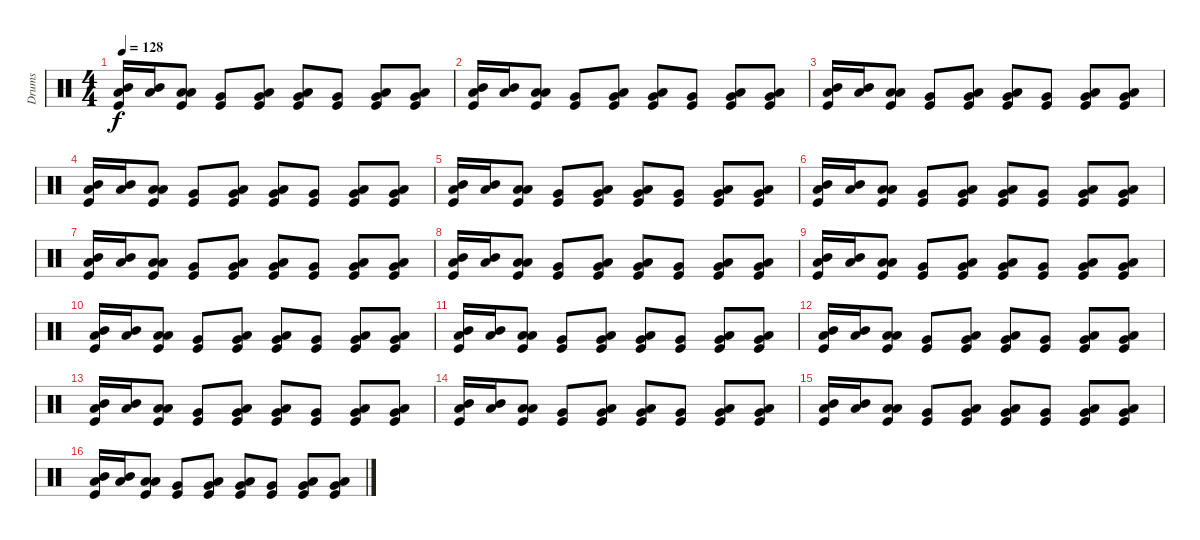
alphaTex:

\track ("Drums" "Drums") {instrument percussion}
\staff {score}
\articulation defaults
\ts (4 4)
\tempo 128
\clef neutral
\ks c
("Mid Tom (hit)" "Low Tom (hit)" "Kick (hit)").16{dy f} ("Mid Tom (hit)" "Low Tom (hit)").16 ("Low Tom (hit)" "Low Tom (hit)" "Kick (hit)").8 ("Very Low Tom (hit)" "Kick (hit)").8 ("Low Tom (hit)" "Very Low Tom (hit)" "Kick (hit)").8 ("Low Tom (hit)" "Very Low Tom (hit)" "Kick (hit)").8 ("Very Low Tom (hit)" "Kick (hit)").8 ("Low Tom (hit)" "Very Low Tom (hit)" "Kick (hit)").8 ("Low Tom (hit)" "Very Low Tom (hit)" "Kick (hit)").8 |
("Mid Tom (hit)" "Low Tom (hit)" "Kick (hit)").16 ("Mid Tom (hit)" "Low Tom (hit)").16 ("Low Tom (hit)" "Low Tom (hit)" "Kick (hit)").8 ("Very Low Tom (hit)" "Kick (hit)").8 ("Low Tom (hit)" "Very Low Tom (hit)" "Kick (hit)").8 ("Low Tom (hit)" "Very Low Tom (hit)" "Kick (hit)").8 ("Very Low Tom (hit)" "Kick (hit)").8 ("Low Tom (hit)" "Very Low Tom (hit)" "Kick (hit)").8 ("Low Tom (hit)" "Very Low Tom (hit)" "Kick (hit)").8 |
("Mid Tom (hit)" "Low Tom (hit)" "Kick (hit)").16 ("Mid Tom (hit)" "Low Tom (hit)").16 ("Low Tom (hit)" "Low Tom (hit)" "Kick (hit)").8 ("Very Low Tom (hit)" "Kick (hit)").8 ("Low Tom (hit)" "Very Low Tom (hit)" "Kick (hit)").8 ("Low Tom (hit)" "Very Low Tom (hit)" "Kick (hit)").8 ("Very Low Tom (hit)" "Kick (hit)").8 ("Low Tom (hit)" "Very Low Tom (hit)" "Kick (hit)").8 ("Low Tom (hit)" "Very Low Tom (hit)" "Kick (hit)").8 |
("Mid Tom (hit)" "Low Tom (hit)" "Kick (hit)").16 ("Mid Tom (hit)" "Low Tom (hit)").16 ("Low Tom (hit)" "Low Tom (hit)" "Kick (hit)").8 ("Very Low Tom (hit)" "Kick (hit)").8 ("Low Tom (hit)" "Very Low Tom (hit)" "Kick (hit)").8 ("Low Tom (hit)" "Very Low Tom (hit)" "Kick (hit)").8 ("Very Low Tom (hit)" "Kick (hit)").8 ("Low Tom (hit)" "Very Low Tom (hit)" "Kick (hit)").8 ("Low Tom (hit)" "Very Low Tom (hit)" "Kick (hit)").8 |
("Mid Tom (hit)" "Low Tom (hit)" "Kick (hit)").16 ("Mid Tom (hit)" "Low Tom (hit)").16 ("Low Tom (hit)" "Low Tom (hit)" "Kick (hit)").8 ("Very Low Tom (hit)" "Kick (hit)").8 ("Low Tom (hit)" "Very Low Tom (hit)" "Kick (hit)").8 ("Low Tom (hit)" "Very Low Tom (hit)" "Kick (hit)").8 ("Very Low Tom (hit)" "Kick (hit)").8 ("Low Tom (hit)" "Very Low Tom (hit)" "Kick (hit)").8 ("Low Tom (hit)" "Very Low Tom (hit)" "Kick (hit)").8 |
("Mid Tom (hit)" "Low Tom (hit)" "Kick (hit)").16 ("Mid Tom (hit)" "Low Tom (hit)").16 ("Low Tom (hit)" "Low Tom (hit)" "Kick (hit)").8 ("Very Low Tom (hit)" "Kick (hit)").8 ("Low Tom (hit)" "Very Low Tom (hit)" "Kick (hit)").8 ("Low Tom (hit)" "Very Low Tom (hit)" "Kick (hit)").8 ("Very Low Tom (hit)" "Kick (hit)").8 ("Low Tom (hit)" "Very Low Tom (hit)" "Kick (hit)").8 ("Low Tom (hit)" "Very Low Tom (hit)" "Kick (hit)").8 |
("Mid Tom (hit)" "Low Tom (hit)" "Kick (hit)").16 ("Mid Tom (hit)" "Low Tom (hit)").16 ("Low Tom (hit)" "Low Tom (hit)" "Kick (hit)").8 ("Very Low Tom (hit)" "Kick (hit)").8 ("Low Tom (hit)" "Very Low Tom (hit)" "Kick (hit)").8 ("Low Tom (hit)" "Very Low Tom (hit)" "Kick (hit)").8 ("Very Low Tom (hit)" "Kick (hit)").8 ("Low Tom (hit)" "Very Low Tom (hit)" "Kick (hit)").8 ("Low Tom (hit)" "Very Low Tom (hit)" "Kick (hit)").8 |
("Mid Tom (hit)" "Low Tom (hit)" "Kick (hit)").16 ("Mid Tom (hit)" "Low Tom (hit)").16 ("Low Tom (hit)" "Low Tom (hit)" "Kick (hit)").8 ("Very Low Tom (hit)" "Kick (hit)").8 ("Low Tom (hit)" "Very Low Tom (hit)" "Kick (hit)").8 ("Low Tom (hit)" "Very Low Tom (hit)" "Kick (hit)").8 ("Very Low Tom (hit)" "Kick (hit)").8 ("Low Tom (hit)" "Very Low Tom (hit)" "Kick (hit)").8 ("Low Tom (hit)" "Very Low Tom (hit)" "Kick (hit)").8 |
("Mid Tom (hit)" "Low Tom (hit)" "Kick (hit)").16 ("Mid Tom (hit)" "Low Tom (hit)").16 ("Low Tom (hit)" "Low Tom (hit)" "Kick (hit)").8 ("Very Low Tom (hit)" "Kick (hit)").8 ("Low Tom (hit)" "Very Low Tom (hit)" "Kick (hit)").8 ("Low Tom (hit)" "Very Low Tom (hit)" "Kick (hit)").8 ("Very Low Tom (hit)" "Kick (hit)").8 ("Low Tom (hit)" "Very Low Tom (hit)" "Kick (hit)").8 ("Low Tom (hit)" "Very Low Tom (hit)" "Kick (hit)").8 |
("Mid Tom (hit)" "Low Tom (hit)" "Kick (hit)").16 ("Mid Tom (hit)" "Low Tom (hit)").16 ("Low Tom (hit)" "Low Tom (hit)" "Kick (hit)").8 ("Very Low Tom (hit)" "Kick (hit)").8 ("Low Tom (hit)" "Very Low Tom (hit)" "Kick (hit)").8 ("Low Tom (hit)" "Very Low Tom (hit)" "Kick (hit)").8 ("Very Low Tom (hit)" "Kick (hit)").8 ("Low Tom (hit)" "Very Low Tom (hit)" "Kick (hit)").8 ("Low Tom (hit)" "Very Low Tom (hit)" "Kick (hit)").8 |
("Mid Tom (hit)" "Low Tom (hit)" "Kick (hit)").16 ("Mid Tom (hit)" "Low Tom (hit)").16 ("Low Tom (hit)" "Low Tom (hit)" "Kick (hit)").8 ("Very Low Tom (hit)" "Kick (hit)").8 ("Low Tom (hit)" "Very Low Tom (hit)" "Kick (hit)").8 ("Low Tom (hit)" "Very Low Tom (hit)" "Kick (hit)").8 ("Very Low Tom (hit)" "Kick (hit)").8 ("Low Tom (hit)" "Very Low Tom (hit)" "Kick (hit)").8 ("Low Tom (hit)" "Very Low Tom (hit)" "Kick (hit)").8 |
("Mid Tom (hit)" "Low Tom (hit)" "Kick (hit)").16 ("Mid Tom (hit)" "Low Tom (hit)").16 ("Low Tom (hit)" "Low Tom (hit)" "Kick (hit)").8 ("Very Low Tom (hit)" "Kick (hit)").8 ("Low Tom (hit)" "Very Low Tom (hit)" "Kick (hit)").8 ("Low Tom (hit)" "Very Low Tom (hit)" "Kick (hit)").8 ("Very Low Tom (hit)" "Kick (hit)").8 ("Low Tom (hit)" "Very Low Tom (hit)" "Kick (hit)").8 ("Low Tom (hit)" "Very Low Tom (hit)" "Kick (hit)").8 |
("Mid Tom (hit)" "Low Tom (hit)" "Kick (hit)").16 ("Mid Tom (hit)" "Low Tom (hit)").16 ("Low Tom (hit)" "Low Tom (hit)" "Kick (hit)").8 ("Very Low Tom (hit)" "Kick (hit)").8 ("Low Tom (hit)" "Very Low Tom (hit)" "Kick (hit)").8 ("Low Tom (hit)" "Very Low Tom (hit)" "Kick (hit)").8 ("Very Low Tom (hit)" "Kick (hit)").8 ("Low Tom (hit)" "Very Low Tom (hit)" "Kick (hit)").8 ("Low Tom (hit)" "Very Low Tom (hit)" "Kick (hit)").8 |
("Mid Tom (hit)" "Low Tom (hit)" "Kick (hit)").16 ("Mid Tom (hit)" "Low Tom (hit)").16 ("Low Tom (hit)" "Low Tom (hit)" "Kick (hit)").8 ("Very Low Tom (hit)" "Kick (hit)").8 ("Low Tom (hit)" "Very Low Tom (hit)" "Kick (hit)").8 ("Low Tom (hit)" "Very Low Tom (hit)" "Kick (hit)").8 ("Very Low Tom (hit)" "Kick (hit)").8 ("Low Tom (hit)" "Very Low Tom (hit)" "Kick (hit)").8 ("Low Tom (hit)" "Very Low Tom (hit)" "Kick (hit)").8 |
("Mid Tom (hit)" "Low Tom (hit)" "Kick (hit)").16 ("Mid Tom (hit)" "Low Tom (hit)").16 ("Low Tom (hit)" "Low Tom (hit)" "Kick (hit)").8 ("Very Low Tom (hit)" "Kick (hit)").8 ("Low Tom (hit)" "Very Low Tom (hit)" "Kick (hit)").8 ("Low Tom (hit)" "Very Low Tom (hit)" "Kick (hit)").8 ("Very Low Tom (hit)" "Kick (hit)").8 ("Low Tom (hit)" "Very Low Tom (hit)" "Kick (hit)").8 ("Low Tom (hit)" "Very Low Tom (hit)" "Kick (hit)").8 |
("Mid Tom (hit)" "Low Tom (hit)" "Kick (hit)").16 ("Mid Tom (hit)" "Low Tom (hit)").16 ("Low Tom (hit)" "Low Tom (hit)" "Kick (hit)").8 ("Very Low Tom (hit)" "Kick (hit)").8 ("Low Tom (hit)" "Very Low Tom (hit)" "Kick (hit)").8 ("Low Tom (hit)" "Very Low Tom (hit)" "Kick (hit)").8 ("Very Low Tom (hit)" "Kick (hit)").8 ("Low Tom (hit)" "Very Low Tom (hit)" "Kick (hit)").8 ("Low Tom (hit)" "Very Low Tom (hit)" "Kick (hit)").8
